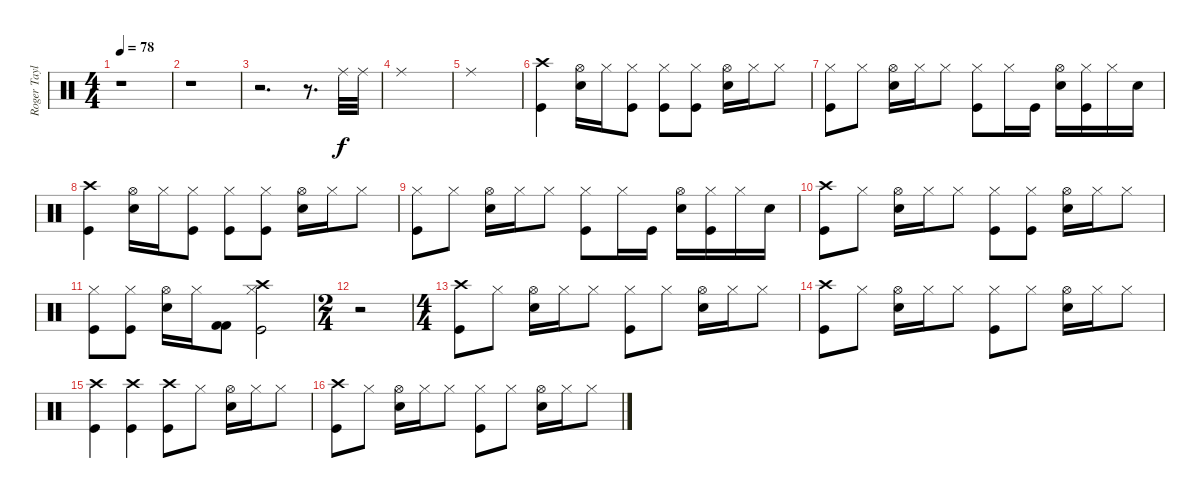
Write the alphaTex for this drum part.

\track ("Roger Taylor - Drums" "Roger Tayl") {instrument percussion}
\staff {score}
\articulation defaults
\ts (4 4)
\tempo 78
\clef neutral
\ks c
r.1{dy f} |
r.1 |
r.2{d} r.8{d} "Ride (middle)".32 "Ride (middle)".32 |
"Ride (middle)".1 |
"Ride (middle)".1 |
("Kick (hit)" "Crash high (hit)").4 ("Hi-Hat (open)" "Electric Snare (hit)").16 "Hi-Hat (closed)".16 ("Hi-Hat (closed)" "Kick (hit)").8 ("Hi-Hat (closed)" "Kick (hit)").8 ("Hi-Hat (closed)" "Kick (hit)").8 ("Hi-Hat (open)" "Electric Snare (hit)").16 "Hi-Hat (closed)".16 "Hi-Hat (closed)".8 |
("Hi-Hat (closed)" "Kick (hit)").8 "Hi-Hat (closed)".8 ("Hi-Hat (open)" "Electric Snare (hit)").16 "Hi-Hat (closed)".16 "Hi-Hat (closed)".8 ("Hi-Hat (closed)" "Kick (hit)").8 "Hi-Hat (closed)".16 "Kick (hit)".16 ("Hi-Hat (open)" "Electric Snare (hit)").16 ("Hi-Hat (closed)" "Kick (hit)").16 "Hi-Hat (closed)".16 "Electric Snare (hit)".16 |
("Kick (hit)" "Crash high (hit)").4 ("Hi-Hat (open)" "Electric Snare (hit)").16 "Hi-Hat (closed)".16 ("Hi-Hat (closed)" "Kick (hit)").8 ("Hi-Hat (closed)" "Kick (hit)").8 ("Hi-Hat (closed)" "Kick (hit)").8 ("Hi-Hat (open)" "Electric Snare (hit)").16 "Hi-Hat (closed)".16 "Hi-Hat (closed)".8 |
("Hi-Hat (closed)" "Kick (hit)").8 "Hi-Hat (closed)".8 ("Hi-Hat (open)" "Electric Snare (hit)").16 "Hi-Hat (closed)".16 "Hi-Hat (closed)".8 ("Hi-Hat (closed)" "Kick (hit)").8 "Hi-Hat (closed)".16 "Kick (hit)".16 ("Hi-Hat (open)" "Electric Snare (hit)").16 ("Hi-Hat (closed)" "Kick (hit)").16 "Hi-Hat (closed)".16 "Electric Snare (hit)".16 |
("Kick (hit)" "Crash high (hit)").8 "Hi-Hat (closed)".8 ("Electric Snare (hit)" "Hi-Hat (open)").16 "Hi-Hat (closed)".16 "Hi-Hat (closed)".8 ("Hi-Hat (closed)" "Kick (hit)").8 ("Hi-Hat (closed)" "Kick (hit)").8 ("Electric Snare (hit)" "Hi-Hat (open)").16 "Hi-Hat (closed)".16 "Hi-Hat (closed)".8 |
("Hi-Hat (closed)" "Kick (hit)").8 ("Hi-Hat (closed)" "Kick (hit)").8 ("Electric Snare (hit)" "Hi-Hat (open)").16 "Hi-Hat (closed)".16 ("Kick (hit) 2" "Kick (hit) 2").8 ("Crash high (hit)" "Kick (hit)" "Hi-Hat (closed)").2 |
\ts (2 4)
r.2 |
\ts (4 4)
("Kick (hit)" "Crash high (hit)").8 "Hi-Hat (closed)".8 ("Electric Snare (hit)" "Hi-Hat (open)").16 "Hi-Hat (closed)".16 "Hi-Hat (closed)".8 ("Hi-Hat (closed)" "Kick (hit)").8 "Hi-Hat (closed)".8 ("Electric Snare (hit)" "Hi-Hat (open)").16 "Hi-Hat (closed)".16 "Hi-Hat (closed)".8 |
("Kick (hit)" "Crash high (hit)").8 "Hi-Hat (closed)".8 ("Electric Snare (hit)" "Hi-Hat (open)").16 "Hi-Hat (closed)".16 "Hi-Hat (closed)".8 ("Hi-Hat (closed)" "Kick (hit)").8 "Hi-Hat (closed)".8 ("Electric Snare (hit)" "Hi-Hat (open)").16 "Hi-Hat (closed)".16 "Hi-Hat (closed)".8 |
("Kick (hit)" "Crash high (hit)").4 ("Kick (hit)" "Crash high (hit)").4 ("Kick (hit)" "Crash high (hit)").8 "Hi-Hat (closed)".8 ("Electric Snare (hit)" "Hi-Hat (open)").16 "Hi-Hat (closed)".16 "Hi-Hat (closed)".8 |
("Kick (hit)" "Crash high (hit)").8 "Hi-Hat (closed)".8 ("Electric Snare (hit)" "Hi-Hat (open)").16 "Hi-Hat (closed)".16 "Hi-Hat (closed)".8 ("Hi-Hat (closed)" "Kick (hit)").8 "Hi-Hat (closed)".8 ("Electric Snare (hit)" "Hi-Hat (open)").16 "Hi-Hat (closed)".16 "Hi-Hat (closed)".8
